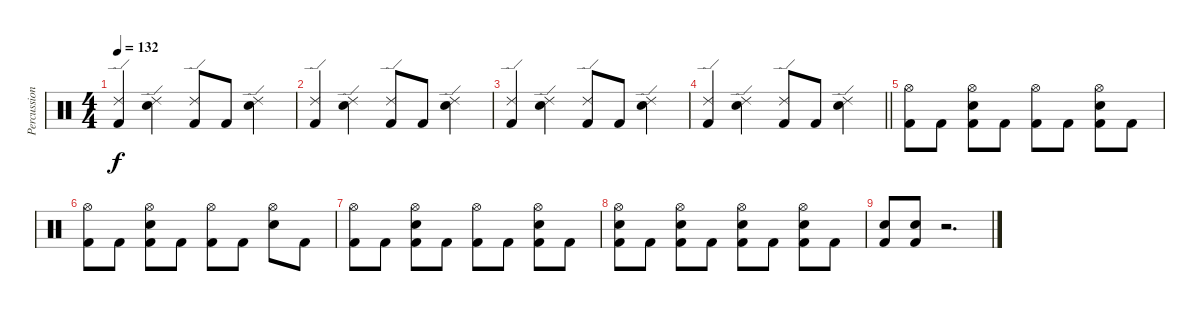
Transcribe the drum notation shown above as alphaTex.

\track ("Percussions" "Percussion") {instrument percussion}
\staff {score}
\articulation defaults
\ts (4 4)
\tempo 132
\clef neutral
\ks c
("Kick (hit) 2" "Ride (edge) 2").4{dy f} ("Electric Snare (hit)" "Ride (edge) 2").4 ("Kick (hit) 2" "Ride (edge) 2").8 "Kick (hit) 2".8 ("Electric Snare (hit)" "Ride (edge) 2").4 |
("Kick (hit) 2" "Ride (edge) 2").4 ("Electric Snare (hit)" "Ride (edge) 2").4 ("Kick (hit) 2" "Ride (edge) 2").8 "Kick (hit) 2".8 ("Electric Snare (hit)" "Ride (edge) 2").4 |
("Kick (hit) 2" "Ride (edge) 2").4 ("Electric Snare (hit)" "Ride (edge) 2").4 ("Kick (hit) 2" "Ride (edge) 2").8 "Kick (hit) 2".8 ("Electric Snare (hit)" "Ride (edge) 2").4 |
\barLineRight lightlight
("Kick (hit) 2" "Ride (edge) 2").4 ("Electric Snare (hit)" "Ride (edge) 2").4 ("Kick (hit) 2" "Ride (edge) 2").8 "Kick (hit) 2".8 ("Electric Snare (hit)" "Ride (edge) 2").4 |
("Kick (hit) 2" "Hi-Hat (open)").8 "Kick (hit) 2".8 ("Kick (hit) 2" "Electric Snare (hit)" "Hi-Hat (open)").8 "Kick (hit) 2".8 ("Kick (hit) 2" "Hi-Hat (open)").8 "Kick (hit) 2".8 ("Kick (hit) 2" "Electric Snare (hit)" "Hi-Hat (open)").8 "Kick (hit) 2".8 |
("Kick (hit) 2" "Hi-Hat (open)").8 "Kick (hit) 2".8 ("Kick (hit) 2" "Electric Snare (hit)" "Hi-Hat (open)").8 "Kick (hit) 2".8 ("Kick (hit) 2" "Hi-Hat (open)").8 "Kick (hit) 2".8 ("Electric Snare (hit)" "Hi-Hat (open)").8 "Kick (hit) 2".8 |
("Kick (hit) 2" "Hi-Hat (open)").8 "Kick (hit) 2".8 ("Kick (hit) 2" "Electric Snare (hit)" "Hi-Hat (open)").8 "Kick (hit) 2".8 ("Kick (hit) 2" "Hi-Hat (open)").8 "Kick (hit) 2".8 ("Kick (hit) 2" "Electric Snare (hit)" "Hi-Hat (open)").8 "Kick (hit) 2".8 |
("Kick (hit) 2" "Electric Snare (hit)" "Hi-Hat (open)").8 "Kick (hit) 2".8 ("Kick (hit) 2" "Electric Snare (hit)" "Hi-Hat (open)").8 "Kick (hit) 2".8 ("Kick (hit) 2" "Electric Snare (hit)" "Hi-Hat (open)").8 "Kick (hit) 2".8 ("Kick (hit) 2" "Electric Snare (hit)" "Hi-Hat (open)").8 "Kick (hit) 2".8 |
("Kick (hit) 2" "Electric Snare (hit)").8 ("Kick (hit) 2" "Electric Snare (hit)").8 r.2{d}
